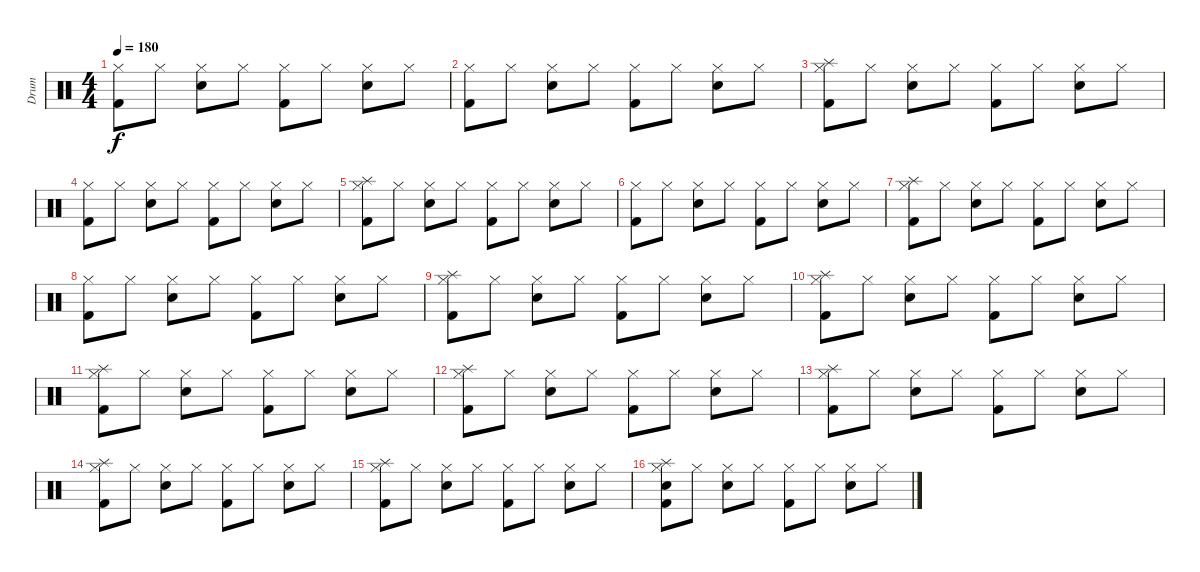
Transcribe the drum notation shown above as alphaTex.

\track ("Drum" "Drum") {instrument percussion}
\staff {score}
\articulation defaults
\ts (4 4)
\tempo 180
\clef neutral
\ks c
("Hi-Hat (closed)" "Kick (hit) 2").8{dy f} "Hi-Hat (closed)".8 ("Hi-Hat (closed)" "Snare (hit) 2").8 "Hi-Hat (closed)".8 ("Hi-Hat (closed)" "Kick (hit) 2").8 "Hi-Hat (closed)".8 ("Hi-Hat (closed)" "Snare (hit) 2").8 "Hi-Hat (closed)".8 |
("Hi-Hat (closed)" "Kick (hit) 2").8 "Hi-Hat (closed)".8 ("Hi-Hat (closed)" "Snare (hit) 2").8 "Hi-Hat (closed)".8 ("Hi-Hat (closed)" "Kick (hit) 2").8 "Hi-Hat (closed)".8 ("Hi-Hat (closed)" "Snare (hit) 2").8 "Hi-Hat (closed)".8 |
("Hi-Hat (closed)" "Kick (hit) 2" "Splash (hit)").8 "Hi-Hat (closed)".8 ("Hi-Hat (closed)" "Snare (hit) 2").8 "Hi-Hat (closed)".8 ("Hi-Hat (closed)" "Kick (hit) 2").8 "Hi-Hat (closed)".8 ("Hi-Hat (closed)" "Snare (hit) 2").8 "Hi-Hat (closed)".8 |
("Hi-Hat (closed)" "Kick (hit) 2").8 "Hi-Hat (closed)".8 ("Hi-Hat (closed)" "Snare (hit) 2").8 "Hi-Hat (closed)".8 ("Hi-Hat (closed)" "Kick (hit) 2").8 "Hi-Hat (closed)".8 ("Hi-Hat (closed)" "Snare (hit) 2").8 "Hi-Hat (closed)".8 |
("Hi-Hat (closed)" "Kick (hit) 2" "Splash (hit)").8 "Hi-Hat (closed)".8 ("Hi-Hat (closed)" "Snare (hit) 2").8 "Hi-Hat (closed)".8 ("Hi-Hat (closed)" "Kick (hit) 2").8 "Hi-Hat (closed)".8 ("Hi-Hat (closed)" "Snare (hit) 2").8 "Hi-Hat (closed)".8 |
("Hi-Hat (closed)" "Kick (hit) 2").8 "Hi-Hat (closed)".8 ("Hi-Hat (closed)" "Snare (hit) 2").8 "Hi-Hat (closed)".8 ("Hi-Hat (closed)" "Kick (hit) 2").8 "Hi-Hat (closed)".8 ("Hi-Hat (closed)" "Snare (hit) 2").8 "Hi-Hat (closed)".8 |
("Hi-Hat (closed)" "Kick (hit) 2" "Splash (hit)").8 "Hi-Hat (closed)".8 ("Hi-Hat (closed)" "Snare (hit) 2").8 "Hi-Hat (closed)".8 ("Hi-Hat (closed)" "Kick (hit) 2").8 "Hi-Hat (closed)".8 ("Hi-Hat (closed)" "Snare (hit) 2").8 "Hi-Hat (closed)".8 |
("Hi-Hat (closed)" "Kick (hit) 2").8 "Hi-Hat (closed)".8 ("Hi-Hat (closed)" "Snare (hit) 2").8 "Hi-Hat (closed)".8 ("Hi-Hat (closed)" "Kick (hit) 2").8 "Hi-Hat (closed)".8 ("Hi-Hat (closed)" "Snare (hit) 2").8 "Hi-Hat (closed)".8 |
("Hi-Hat (closed)" "Kick (hit) 2" "Splash (hit)").8 "Hi-Hat (closed)".8 ("Hi-Hat (closed)" "Snare (hit) 2").8 "Hi-Hat (closed)".8 ("Hi-Hat (closed)" "Kick (hit) 2").8 "Hi-Hat (closed)".8 ("Hi-Hat (closed)" "Snare (hit) 2").8 "Hi-Hat (closed)".8 |
("Hi-Hat (closed)" "Kick (hit) 2" "Splash (hit)").8 "Hi-Hat (closed)".8 ("Hi-Hat (closed)" "Snare (hit) 2").8 "Hi-Hat (closed)".8 ("Hi-Hat (closed)" "Kick (hit) 2").8 "Hi-Hat (closed)".8 ("Hi-Hat (closed)" "Snare (hit) 2").8 "Hi-Hat (closed)".8 |
("Hi-Hat (closed)" "Kick (hit) 2" "Splash (hit)").8 "Hi-Hat (closed)".8 ("Hi-Hat (closed)" "Snare (hit) 2").8 "Hi-Hat (closed)".8 ("Hi-Hat (closed)" "Kick (hit) 2").8 "Hi-Hat (closed)".8 ("Hi-Hat (closed)" "Snare (hit) 2").8 "Hi-Hat (closed)".8 |
("Hi-Hat (closed)" "Kick (hit) 2" "Splash (hit)").8 "Hi-Hat (closed)".8 ("Hi-Hat (closed)" "Snare (hit) 2").8 "Hi-Hat (closed)".8 ("Hi-Hat (closed)" "Kick (hit) 2").8 "Hi-Hat (closed)".8 ("Hi-Hat (closed)" "Snare (hit) 2").8 "Hi-Hat (closed)".8 |
("Hi-Hat (closed)" "Kick (hit) 2" "Splash (hit)").8 "Hi-Hat (closed)".8 ("Hi-Hat (closed)" "Snare (hit) 2").8 "Hi-Hat (closed)".8 ("Hi-Hat (closed)" "Kick (hit) 2").8 "Hi-Hat (closed)".8 ("Hi-Hat (closed)" "Snare (hit) 2").8 "Hi-Hat (closed)".8 |
("Hi-Hat (closed)" "Kick (hit) 2" "Splash (hit)").8 "Hi-Hat (closed)".8 ("Hi-Hat (closed)" "Snare (hit) 2").8 "Hi-Hat (closed)".8 ("Hi-Hat (closed)" "Kick (hit) 2").8 "Hi-Hat (closed)".8 ("Hi-Hat (closed)" "Snare (hit) 2").8 "Hi-Hat (closed)".8 |
("Hi-Hat (closed)" "Kick (hit) 2" "Splash (hit)").8 "Hi-Hat (closed)".8 ("Hi-Hat (closed)" "Snare (hit) 2").8 "Hi-Hat (closed)".8 ("Hi-Hat (closed)" "Kick (hit) 2").8 "Hi-Hat (closed)".8 ("Hi-Hat (closed)" "Snare (hit) 2").8 "Hi-Hat (closed)".8 |
("Hi-Hat (closed)" "Kick (hit) 2" "Splash (hit)" "Snare (hit) 2").8 "Hi-Hat (closed)".8 ("Hi-Hat (closed)" "Snare (hit) 2").8 "Hi-Hat (closed)".8 ("Hi-Hat (closed)" "Kick (hit) 2").8 "Hi-Hat (closed)".8 ("Hi-Hat (closed)" "Snare (hit) 2").8 "Hi-Hat (closed)".8
